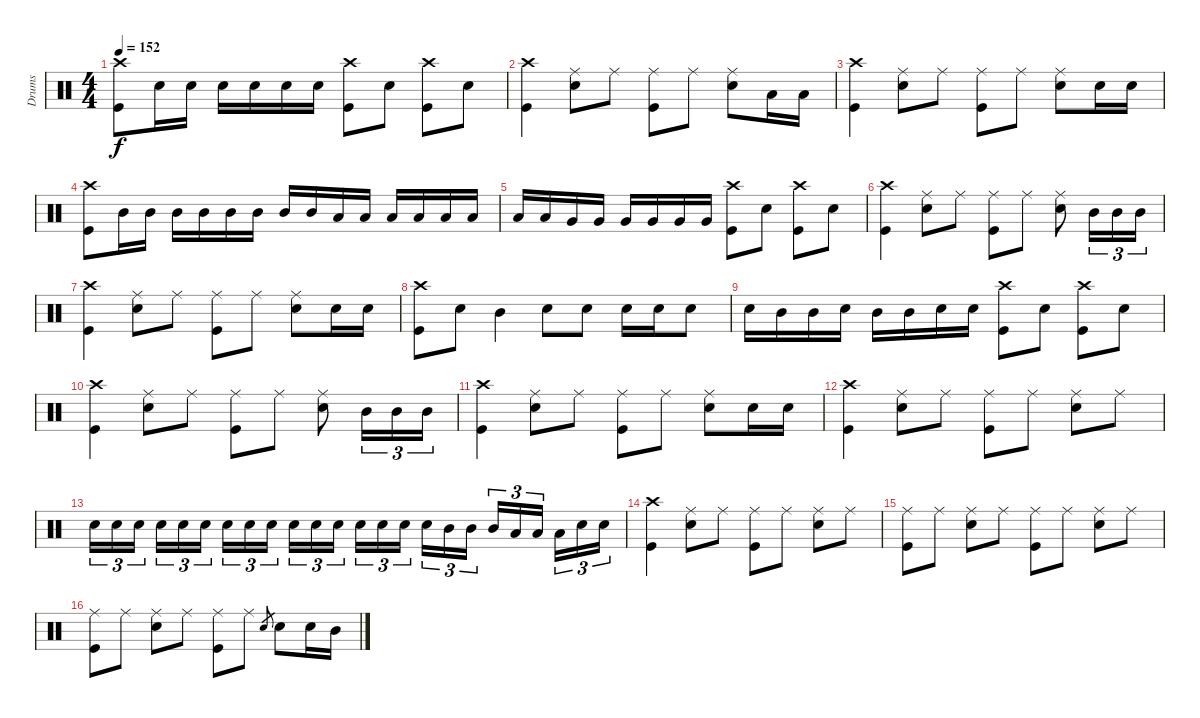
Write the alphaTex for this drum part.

\track ("Drums" "Drums") {instrument percussion}
\staff {score}
\articulation defaults
\ts (4 4)
\tempo 152
\clef neutral
\ks c
("Crash high (hit)" "Kick (hit)").8{dy f} "Snare (hit) 2".16 "Snare (hit) 2".16 "Snare (hit) 2".16 "Snare (hit) 2".16 "Snare (hit) 2".16 "Snare (hit) 2".16 ("Crash high (hit)" "Kick (hit)").8 "Snare (hit) 2".8 ("Crash high (hit)" "Kick (hit)").8 "Snare (hit) 2".8 |
("Crash high (hit)" "Kick (hit)").4 ("Ride (middle)" "Snare (hit) 2").8 "Ride (middle)".8 ("Ride (middle)" "Kick (hit)").8 "Ride (middle)".8 ("Ride (middle)" "Snare (hit) 2").8 "Low Tom (hit)".16 "Low Tom (hit)".16 |
("Crash high (hit)" "Kick (hit)").4 ("Ride (middle)" "Snare (hit) 2").8 "Ride (middle)".8 ("Ride (middle)" "Kick (hit)").8 "Ride (middle)".8 ("Ride (middle)" "Snare (hit) 2").8 "Snare (hit) 2".16 "Snare (hit) 2".16 |
("Crash high (hit)" "Kick (hit)").8 "Mid Tom (hit)".16 "Mid Tom (hit)".16 "Mid Tom (hit)".16 "Mid Tom (hit)".16 "Mid Tom (hit)".16 "Mid Tom (hit)".16 "Mid Tom (hit)".16 "Mid Tom (hit)".16 "Low Tom (hit)".16 "Low Tom (hit)".16 "Low Tom (hit)".16 "Low Tom (hit)".16 "Low Tom (hit)".16 "Low Tom (hit)".16 |
"Low Tom (hit)".16 "Low Tom (hit)".16 "Very Low Tom (hit)".16 "Very Low Tom (hit)".16 "Very Low Tom (hit)".16 "Very Low Tom (hit)".16 "Very Low Tom (hit)".16 "Very Low Tom (hit)".16 ("Crash high (hit)" "Kick (hit)").8 "Snare (hit) 2".8 ("Crash high (hit)" "Kick (hit)").8 "Snare (hit) 2".8 |
("Crash high (hit)" "Kick (hit)").4 ("Ride (middle)" "Snare (hit) 2").8 "Ride (middle)".8 ("Ride (middle)" "Kick (hit)").8 "Ride (middle)".8 ("Ride (middle)" "Snare (hit) 2").8 "Mid Tom (hit)".16{tu (3 2)} "Mid Tom (hit)".16{tu (3 2)} "Mid Tom (hit)".16{tu (3 2)} |
("Crash high (hit)" "Kick (hit)").4 ("Ride (middle)" "Snare (hit) 2").8 "Ride (middle)".8 ("Ride (middle)" "Kick (hit)").8 "Ride (middle)".8 ("Ride (middle)" "Snare (hit) 2").8 "Snare (hit) 2".16 "Snare (hit) 2".16 |
("Crash high (hit)" "Kick (hit)").8 "Snare (hit) 2".8 "Mid Tom (hit)".4 "Snare (hit) 2".8 "Snare (hit) 2".8 "Snare (hit) 2".16 "Snare (hit) 2".16 "Snare (hit) 2".8 |
"Snare (hit) 2".16 "Mid Tom (hit)".16 "Mid Tom (hit)".16 "Snare (hit) 2".16 "Mid Tom (hit)".16 "Mid Tom (hit)".16 "Snare (hit) 2".16 "Snare (hit) 2".16 ("Crash high (hit)" "Kick (hit)").8 "Snare (hit) 2".8 ("Crash high (hit)" "Kick (hit)").8 "Snare (hit) 2".8 |
("Crash high (hit)" "Kick (hit)").4 ("Ride (middle)" "Snare (hit) 2").8 "Ride (middle)".8 ("Ride (middle)" "Kick (hit)").8 "Ride (middle)".8 ("Ride (middle)" "Snare (hit) 2").8 "Mid Tom (hit)".16{tu (3 2)} "Mid Tom (hit)".16{tu (3 2)} "Mid Tom (hit)".16{tu (3 2)} |
("Crash high (hit)" "Kick (hit)").4 ("Ride (middle)" "Snare (hit) 2").8 "Ride (middle)".8 ("Ride (middle)" "Kick (hit)").8 "Ride (middle)".8 ("Ride (middle)" "Snare (hit) 2").8 "Snare (hit) 2".16 "Snare (hit) 2".16 |
("Crash high (hit)" "Kick (hit)").4 ("Ride (middle)" "Snare (hit) 2").8 "Ride (middle)".8 ("Ride (middle)" "Kick (hit)").8 "Ride (middle)".8 ("Ride (middle)" "Snare (hit) 2").8 "Ride (middle)".8 |
"Snare (hit) 2".16{tu (3 2)} "Snare (hit) 2".16{tu (3 2)} "Snare (hit) 2".16{tu (3 2)} "Snare (hit) 2".16{tu (3 2)} "Snare (hit) 2".16{tu (3 2)} "Snare (hit) 2".16{tu (3 2)} "Snare (hit) 2".16{tu (3 2)} "Snare (hit) 2".16{tu (3 2)} "Snare (hit) 2".16{tu (3 2)} "Snare (hit) 2".16{tu (3 2)} "Snare (hit) 2".16{tu (3 2)} "Snare (hit) 2".16{tu (3 2)} "Snare (hit) 2".16{tu (3 2)} "Snare (hit) 2".16{tu (3 2)} "Snare (hit) 2".16{tu (3 2)} "Snare (hit) 2".16{tu (3 2)} "Mid Tom (hit)".16{tu (3 2)} "Mid Tom (hit)".16{tu (3 2)} "Mid Tom (hit)".16{tu (3 2)} "Low Tom (hit)".16{tu (3 2)} "Low Tom (hit)".16{tu (3 2)} "Low Tom (hit)".16{tu (3 2)} "Snare (hit) 2".16{tu (3 2)} "Snare (hit) 2".16{tu (3 2)} |
\section ("" "")
("Crash high (hit)" "Kick (hit)").4 ("Ride (middle)" "Snare (hit) 2").8 "Ride (middle)".8 ("Ride (middle)" "Kick (hit)").8 "Ride (middle)".8 ("Ride (middle)" "Snare (hit) 2").8 "Ride (middle)".8 |
("Ride (middle)" "Kick (hit)").8 "Ride (middle)".8 ("Ride (middle)" "Snare (hit) 2").8 "Ride (middle)".8 ("Ride (middle)" "Kick (hit)").8 "Ride (middle)".8 ("Ride (middle)" "Snare (hit) 2").8 "Ride (middle)".8 |
("Ride (middle)" "Kick (hit)").8 "Ride (middle)".8 ("Ride (middle)" "Snare (hit) 2").8 "Ride (middle)".8 ("Ride (middle)" "Kick (hit)").8 "Ride (middle)".8 "Snare (hit) 2".8{gr} "Snare (hit) 2".8 "Snare (hit) 2".16 "Mid Tom (hit)".16
